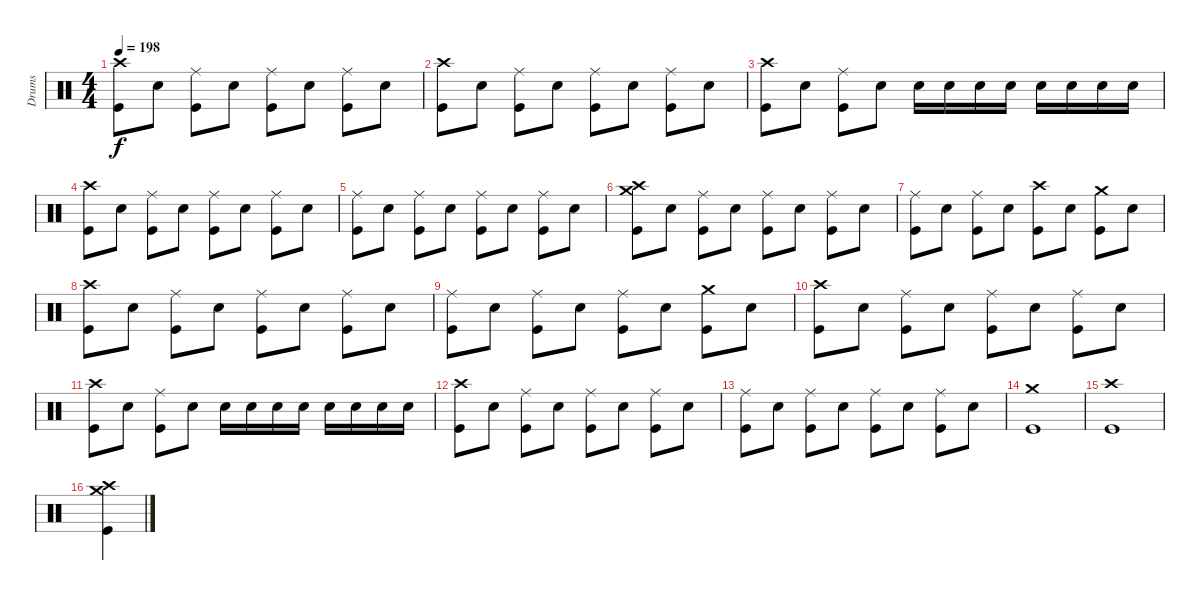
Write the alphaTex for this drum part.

\track ("Drums" "Drums") {instrument percussion}
\staff {score}
\articulation defaults
\ts (4 4)
\tempo 198
\clef neutral
\ks c
("Crash high (hit)" "Kick (hit)").8{dy f} "Electric Snare (hit)".8 ("Ride (middle)" "Kick (hit)").8 "Electric Snare (hit)".8 ("Ride (middle)" "Kick (hit)").8 "Electric Snare (hit)".8 ("Ride (middle)" "Kick (hit)").8 "Electric Snare (hit)".8 |
("Crash high (hit)" "Kick (hit)").8 "Electric Snare (hit)".8 ("Ride (middle)" "Kick (hit)").8 "Electric Snare (hit)".8 ("Ride (middle)" "Kick (hit)").8 "Electric Snare (hit)".8 ("Ride (middle)" "Kick (hit)").8 "Electric Snare (hit)".8 |
("Crash high (hit)" "Kick (hit)").8 "Electric Snare (hit)".8 ("Ride (middle)" "Kick (hit)").8 "Electric Snare (hit)".8 "Electric Snare (hit)".16 "Electric Snare (hit)".16 "Electric Snare (hit)".16 "Electric Snare (hit)".16 "Electric Snare (hit)".16 "Electric Snare (hit)".16 "Electric Snare (hit)".16 "Electric Snare (hit)".16 |
("Crash high (hit)" "Kick (hit)").8 "Electric Snare (hit)".8 ("Ride (middle)" "Kick (hit)").8 "Electric Snare (hit)".8 ("Ride (middle)" "Kick (hit)").8 "Electric Snare (hit)".8 ("Ride (middle)" "Kick (hit)").8 "Electric Snare (hit)".8 |
("Ride (middle)" "Kick (hit)").8 "Electric Snare (hit)".8 ("Ride (middle)" "Kick (hit)").8 "Electric Snare (hit)".8 ("Ride (middle)" "Kick (hit)").8 "Electric Snare (hit)".8 ("Ride (middle)" "Kick (hit)").8 "Electric Snare (hit)".8 |
("Crash high (hit)" "Crash medium (hit)" "Kick (hit)").8 "Electric Snare (hit)".8 ("Ride (middle)" "Kick (hit)").8 "Electric Snare (hit)".8 ("Ride (middle)" "Kick (hit)").8 "Electric Snare (hit)".8 ("Ride (middle)" "Kick (hit)").8 "Electric Snare (hit)".8 |
("Ride (middle)" "Kick (hit)").8 "Electric Snare (hit)".8 ("Ride (middle)" "Kick (hit)").8 "Electric Snare (hit)".8 ("Crash high (hit)" "Kick (hit)").8 "Electric Snare (hit)".8 ("Crash medium (hit)" "Kick (hit)").8 "Electric Snare (hit)".8 |
("Crash high (hit)" "Kick (hit)").8 "Electric Snare (hit)".8 ("Ride (middle)" "Kick (hit)").8 "Electric Snare (hit)".8 ("Ride (middle)" "Kick (hit)").8 "Electric Snare (hit)".8 ("Ride (middle)" "Kick (hit)").8 "Electric Snare (hit)".8 |
("Ride (middle)" "Kick (hit)").8 "Electric Snare (hit)".8 ("Ride (middle)" "Kick (hit)").8 "Electric Snare (hit)".8 ("Ride (middle)" "Kick (hit)").8 "Electric Snare (hit)".8 ("Crash medium (hit)" "Kick (hit)").8 "Electric Snare (hit)".8 |
("Crash high (hit)" "Kick (hit)").8 "Electric Snare (hit)".8 ("Ride (middle)" "Kick (hit)").8 "Electric Snare (hit)".8 ("Ride (middle)" "Kick (hit)").8 "Electric Snare (hit)".8 ("Ride (middle)" "Kick (hit)").8 "Electric Snare (hit)".8 |
("Crash high (hit)" "Kick (hit)").8 "Electric Snare (hit)".8 ("Ride (middle)" "Kick (hit)").8 "Electric Snare (hit)".8 "Electric Snare (hit)".16 "Electric Snare (hit)".16 "Electric Snare (hit)".16 "Electric Snare (hit)".16 "Electric Snare (hit)".16 "Electric Snare (hit)".16 "Electric Snare (hit)".16 "Electric Snare (hit)".16 |
("Crash high (hit)" "Kick (hit)").8 "Electric Snare (hit)".8 ("Ride (middle)" "Kick (hit)").8 "Electric Snare (hit)".8 ("Ride (middle)" "Kick (hit)").8 "Electric Snare (hit)".8 ("Ride (middle)" "Kick (hit)").8 "Electric Snare (hit)".8 |
("Ride (middle)" "Kick (hit)").8 "Electric Snare (hit)".8 ("Ride (middle)" "Kick (hit)").8 "Electric Snare (hit)".8 ("Ride (middle)" "Kick (hit)").8 "Electric Snare (hit)".8 ("Ride (middle)" "Kick (hit)").8 "Electric Snare (hit)".8 |
("Crash medium (hit)" "Kick (hit)").1 |
("Crash high (hit)" "Kick (hit)").1 |
("Crash high (hit)" "Crash medium (hit)" "Kick (hit)").4
